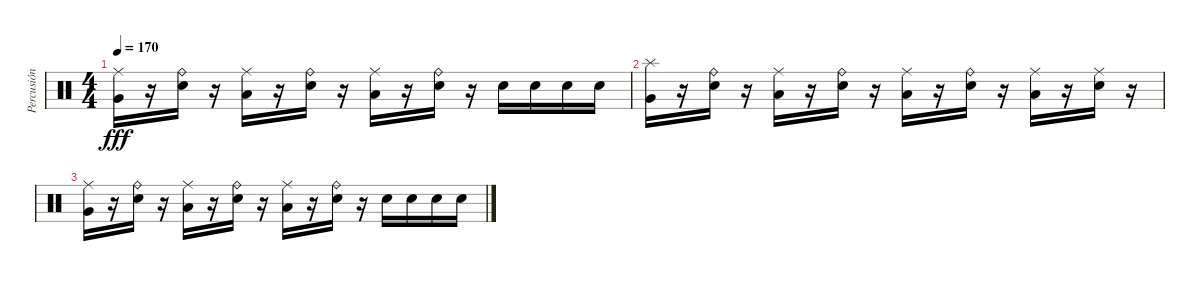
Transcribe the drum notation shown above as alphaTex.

\track ("Percusión" "Percusión") {instrument percussion}
\staff {score}
\articulation defaults
\ts (4 4)
\tempo 170
\clef neutral
\ks c
("Ride (middle)" "Very Low Tom (hit)").16{dy fff} r.16 ("Ride (bell)" "Snare (hit) 2").16 r.16 ("Ride (middle)" "Low Tom (hit)").16 r.16 ("Ride (bell)" "Snare (hit) 2").16 r.16 ("Ride (middle)" "Low Tom (hit)").16 r.16 ("Ride (bell)" "Snare (hit) 2").16 r.16 "Snare (hit) 2".16 "Snare (hit) 2".16 "Snare (hit) 2".16 "Snare (hit) 2".16 |
("Splash (hit)" "Very Low Tom (hit)").16 r.16 ("Ride (bell)" "Snare (hit) 2").16 r.16 ("Ride (middle)" "Low Tom (hit)").16 r.16 ("Ride (bell)" "Snare (hit) 2").16 r.16 ("Ride (middle)" "Low Tom (hit)").16 r.16 ("Ride (bell)" "Snare (hit) 2").16 r.16 ("Ride (middle)" "Low Tom (hit)").16 r.16 ("Ride (middle)" "Snare (hit) 2").16 r.16 |
("Ride (middle)" "Very Low Tom (hit)").16 r.16 ("Ride (bell)" "Snare (hit) 2").16 r.16 ("Ride (middle)" "Low Tom (hit)").16 r.16 ("Ride (bell)" "Snare (hit) 2").16 r.16 ("Ride (middle)" "Low Tom (hit)").16 r.16 ("Ride (bell)" "Snare (hit) 2").16 r.16 "Snare (hit) 2".16 "Snare (hit) 2".16 "Snare (hit) 2".16 "Snare (hit) 2".16
